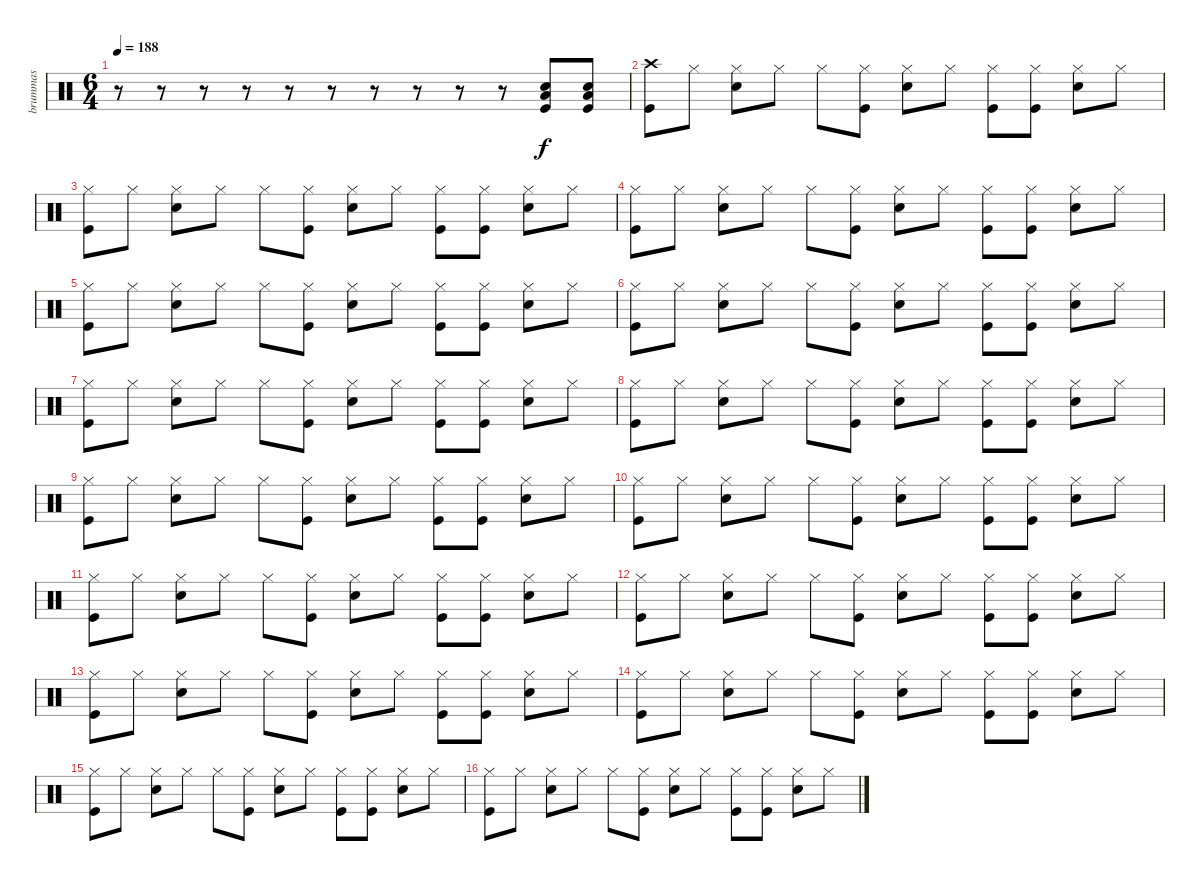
\track ("brummas" "brummas") {instrument percussion}
\staff {score}
\articulation defaults
\ts (6 4)
\tempo 188
\clef neutral
\ks c
r.8{dy f} r.8 r.8 r.8 r.8 r.8 r.8 r.8 r.8 r.8 ("Low Floor Tom (hit)" "Snare (hit) 2" "Kick (hit)").8 ("Low Floor Tom (hit)" "Snare (hit) 2" "Kick (hit)").8 |
("Crash high (hit)" "Kick (hit)").8 "Hi-Hat (closed)".8 ("Hi-Hat (closed)" "Snare (hit) 2").8 "Hi-Hat (closed)".8 "Hi-Hat (closed)".8 ("Hi-Hat (closed)" "Kick (hit)").8 ("Hi-Hat (closed)" "Snare (hit) 2").8 "Hi-Hat (closed)".8 ("Hi-Hat (closed)" "Kick (hit)").8 ("Hi-Hat (closed)" "Kick (hit)").8 ("Hi-Hat (closed)" "Snare (hit) 2").8 "Hi-Hat (closed)".8 |
("Hi-Hat (closed)" "Kick (hit)").8 "Hi-Hat (closed)".8 ("Hi-Hat (closed)" "Snare (hit) 2").8 "Hi-Hat (closed)".8 "Hi-Hat (closed)".8 ("Hi-Hat (closed)" "Kick (hit)").8 ("Hi-Hat (closed)" "Snare (hit) 2").8 "Hi-Hat (closed)".8 ("Hi-Hat (closed)" "Kick (hit)").8 ("Hi-Hat (closed)" "Kick (hit)").8 ("Hi-Hat (closed)" "Snare (hit) 2").8 "Hi-Hat (closed)".8 |
("Hi-Hat (closed)" "Kick (hit)").8 "Hi-Hat (closed)".8 ("Hi-Hat (closed)" "Snare (hit) 2").8 "Hi-Hat (closed)".8 "Hi-Hat (closed)".8 ("Hi-Hat (closed)" "Kick (hit)").8 ("Hi-Hat (closed)" "Snare (hit) 2").8 "Hi-Hat (closed)".8 ("Hi-Hat (closed)" "Kick (hit)").8 ("Hi-Hat (closed)" "Kick (hit)").8 ("Hi-Hat (closed)" "Snare (hit) 2").8 "Hi-Hat (closed)".8 |
("Hi-Hat (closed)" "Kick (hit)").8 "Hi-Hat (closed)".8 ("Hi-Hat (closed)" "Snare (hit) 2").8 "Hi-Hat (closed)".8 "Hi-Hat (closed)".8 ("Hi-Hat (closed)" "Kick (hit)").8 ("Hi-Hat (closed)" "Snare (hit) 2").8 "Hi-Hat (closed)".8 ("Hi-Hat (closed)" "Kick (hit)").8 ("Hi-Hat (closed)" "Kick (hit)").8 ("Hi-Hat (closed)" "Snare (hit) 2").8 "Hi-Hat (closed)".8 |
("Hi-Hat (closed)" "Kick (hit)").8 "Hi-Hat (closed)".8 ("Hi-Hat (closed)" "Snare (hit) 2").8 "Hi-Hat (closed)".8 "Hi-Hat (closed)".8 ("Hi-Hat (closed)" "Kick (hit)").8 ("Hi-Hat (closed)" "Snare (hit) 2").8 "Hi-Hat (closed)".8 ("Hi-Hat (closed)" "Kick (hit)").8 ("Hi-Hat (closed)" "Kick (hit)").8 ("Hi-Hat (closed)" "Snare (hit) 2").8 "Hi-Hat (closed)".8 |
("Hi-Hat (closed)" "Kick (hit)").8 "Hi-Hat (closed)".8 ("Hi-Hat (closed)" "Snare (hit) 2").8 "Hi-Hat (closed)".8 "Hi-Hat (closed)".8 ("Hi-Hat (closed)" "Kick (hit)").8 ("Hi-Hat (closed)" "Snare (hit) 2").8 "Hi-Hat (closed)".8 ("Hi-Hat (closed)" "Kick (hit)").8 ("Hi-Hat (closed)" "Kick (hit)").8 ("Hi-Hat (closed)" "Snare (hit) 2").8 "Hi-Hat (closed)".8 |
("Hi-Hat (closed)" "Kick (hit)").8 "Hi-Hat (closed)".8 ("Hi-Hat (closed)" "Snare (hit) 2").8 "Hi-Hat (closed)".8 "Hi-Hat (closed)".8 ("Hi-Hat (closed)" "Kick (hit)").8 ("Hi-Hat (closed)" "Snare (hit) 2").8 "Hi-Hat (closed)".8 ("Hi-Hat (closed)" "Kick (hit)").8 ("Hi-Hat (closed)" "Kick (hit)").8 ("Hi-Hat (closed)" "Snare (hit) 2").8 "Hi-Hat (closed)".8 |
("Hi-Hat (closed)" "Kick (hit)").8 "Hi-Hat (closed)".8 ("Hi-Hat (closed)" "Snare (hit) 2").8 "Hi-Hat (closed)".8 "Hi-Hat (closed)".8 ("Hi-Hat (closed)" "Kick (hit)").8 ("Hi-Hat (closed)" "Snare (hit) 2").8 "Hi-Hat (closed)".8 ("Hi-Hat (closed)" "Kick (hit)").8 ("Hi-Hat (closed)" "Kick (hit)").8 ("Hi-Hat (closed)" "Snare (hit) 2").8 "Hi-Hat (closed)".8 |
("Hi-Hat (closed)" "Kick (hit)").8 "Hi-Hat (closed)".8 ("Hi-Hat (closed)" "Snare (hit) 2").8 "Hi-Hat (closed)".8 "Hi-Hat (closed)".8 ("Hi-Hat (closed)" "Kick (hit)").8 ("Hi-Hat (closed)" "Snare (hit) 2").8 "Hi-Hat (closed)".8 ("Hi-Hat (closed)" "Kick (hit)").8 ("Hi-Hat (closed)" "Kick (hit)").8 ("Hi-Hat (closed)" "Snare (hit) 2").8 "Hi-Hat (closed)".8 |
("Hi-Hat (closed)" "Kick (hit)").8 "Hi-Hat (closed)".8 ("Hi-Hat (closed)" "Snare (hit) 2").8 "Hi-Hat (closed)".8 "Hi-Hat (closed)".8 ("Hi-Hat (closed)" "Kick (hit)").8 ("Hi-Hat (closed)" "Snare (hit) 2").8 "Hi-Hat (closed)".8 ("Hi-Hat (closed)" "Kick (hit)").8 ("Hi-Hat (closed)" "Kick (hit)").8 ("Hi-Hat (closed)" "Snare (hit) 2").8 "Hi-Hat (closed)".8 |
("Hi-Hat (closed)" "Kick (hit)").8 "Hi-Hat (closed)".8 ("Hi-Hat (closed)" "Snare (hit) 2").8 "Hi-Hat (closed)".8 "Hi-Hat (closed)".8 ("Hi-Hat (closed)" "Kick (hit)").8 ("Hi-Hat (closed)" "Snare (hit) 2").8 "Hi-Hat (closed)".8 ("Hi-Hat (closed)" "Kick (hit)").8 ("Hi-Hat (closed)" "Kick (hit)").8 ("Hi-Hat (closed)" "Snare (hit) 2").8 "Hi-Hat (closed)".8 |
("Hi-Hat (closed)" "Kick (hit)").8 "Hi-Hat (closed)".8 ("Hi-Hat (closed)" "Snare (hit) 2").8 "Hi-Hat (closed)".8 "Hi-Hat (closed)".8 ("Hi-Hat (closed)" "Kick (hit)").8 ("Hi-Hat (closed)" "Snare (hit) 2").8 "Hi-Hat (closed)".8 ("Hi-Hat (closed)" "Kick (hit)").8 ("Hi-Hat (closed)" "Kick (hit)").8 ("Hi-Hat (closed)" "Snare (hit) 2").8 "Hi-Hat (closed)".8 |
("Hi-Hat (closed)" "Kick (hit)").8 "Hi-Hat (closed)".8 ("Hi-Hat (closed)" "Snare (hit) 2").8 "Hi-Hat (closed)".8 "Hi-Hat (closed)".8 ("Hi-Hat (closed)" "Kick (hit)").8 ("Hi-Hat (closed)" "Snare (hit) 2").8 "Hi-Hat (closed)".8 ("Hi-Hat (closed)" "Kick (hit)").8 ("Hi-Hat (closed)" "Kick (hit)").8 ("Hi-Hat (closed)" "Snare (hit) 2").8 "Hi-Hat (closed)".8 |
("Hi-Hat (closed)" "Kick (hit)").8 "Hi-Hat (closed)".8 ("Hi-Hat (closed)" "Snare (hit) 2").8 "Hi-Hat (closed)".8 "Hi-Hat (closed)".8 ("Hi-Hat (closed)" "Kick (hit)").8 ("Hi-Hat (closed)" "Snare (hit) 2").8 "Hi-Hat (closed)".8 ("Hi-Hat (closed)" "Kick (hit)").8 ("Hi-Hat (closed)" "Kick (hit)").8 ("Hi-Hat (closed)" "Snare (hit) 2").8 "Hi-Hat (closed)".8 |
("Hi-Hat (closed)" "Kick (hit)").8 "Hi-Hat (closed)".8 ("Hi-Hat (closed)" "Snare (hit) 2").8 "Hi-Hat (closed)".8 "Hi-Hat (closed)".8 ("Hi-Hat (closed)" "Kick (hit)").8 ("Hi-Hat (closed)" "Snare (hit) 2").8 "Hi-Hat (closed)".8 ("Hi-Hat (closed)" "Kick (hit)").8 ("Hi-Hat (closed)" "Kick (hit)").8 ("Hi-Hat (closed)" "Snare (hit) 2").8 "Hi-Hat (closed)".8
